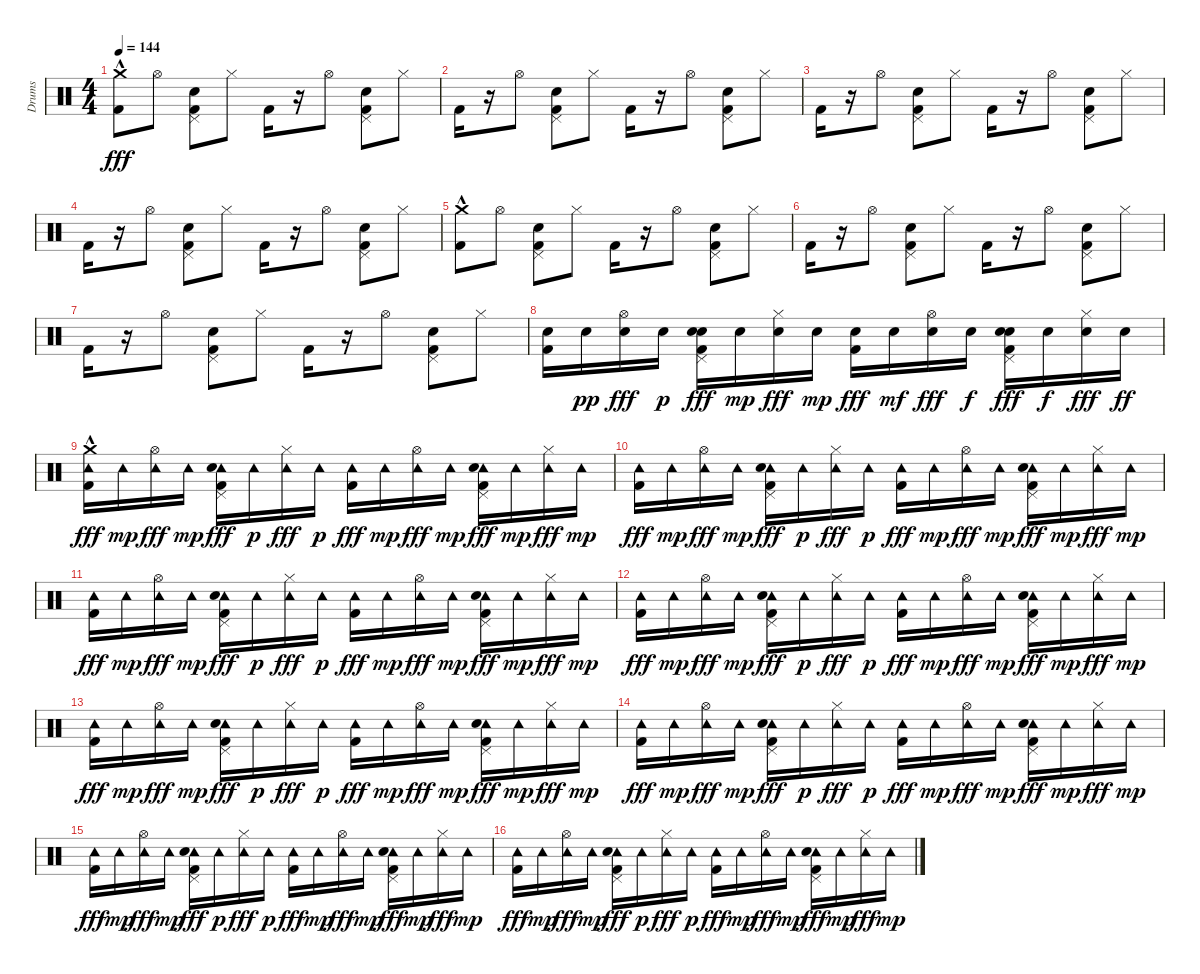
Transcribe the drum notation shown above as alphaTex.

\track ("Drums" "Drums") {instrument percussion}
\staff {score}
\articulation defaults
\ts (4 4)
\tempo 144
\clef neutral
\ks c
("Crash medium (hit)"{hac} "Kick (hit) 2").8{dy fff} "Hi-Hat (open)".8 ("Pedal Hi-Hat (hit)" "Kick (hit) 2" "Hand Clap (hit)").8 "Hi-Hat (closed)".8 "Kick (hit) 2".16 r.16 "Hi-Hat (open)".8 ("Pedal Hi-Hat (hit)" "Kick (hit) 2" "Hand Clap (hit)").8 "Hi-Hat (closed)".8 |
"Kick (hit) 2".16 r.16 "Hi-Hat (open)".8 ("Pedal Hi-Hat (hit)" "Kick (hit) 2" "Hand Clap (hit)").8 "Hi-Hat (closed)".8 "Kick (hit) 2".16 r.16 "Hi-Hat (open)".8 ("Pedal Hi-Hat (hit)" "Kick (hit) 2" "Hand Clap (hit)").8 "Hi-Hat (closed)".8 |
"Kick (hit) 2".16 r.16 "Hi-Hat (open)".8 ("Pedal Hi-Hat (hit)" "Kick (hit) 2" "Hand Clap (hit)").8 "Hi-Hat (closed)".8 "Kick (hit) 2".16 r.16 "Hi-Hat (open)".8 ("Pedal Hi-Hat (hit)" "Kick (hit) 2" "Hand Clap (hit)").8 "Hi-Hat (closed)".8 |
"Kick (hit) 2".16 r.16 "Hi-Hat (open)".8 ("Pedal Hi-Hat (hit)" "Kick (hit) 2" "Hand Clap (hit)").8 "Hi-Hat (closed)".8 "Kick (hit) 2".16 r.16 "Hi-Hat (open)".8 ("Pedal Hi-Hat (hit)" "Kick (hit) 2" "Hand Clap (hit)").8 "Hi-Hat (closed)".8 |
("Crash medium (hit)"{hac} "Kick (hit) 2").8 "Hi-Hat (open)".8 ("Pedal Hi-Hat (hit)" "Kick (hit) 2" "Hand Clap (hit)").8 "Hi-Hat (closed)".8 "Kick (hit) 2".16 r.16 "Hi-Hat (open)".8 ("Pedal Hi-Hat (hit)" "Kick (hit) 2" "Hand Clap (hit)").8 "Hi-Hat (closed)".8 |
"Kick (hit) 2".16 r.16 "Hi-Hat (open)".8 ("Pedal Hi-Hat (hit)" "Kick (hit) 2" "Hand Clap (hit)").8 "Hi-Hat (closed)".8 "Kick (hit) 2".16 r.16 "Hi-Hat (open)".8 ("Pedal Hi-Hat (hit)" "Kick (hit) 2" "Hand Clap (hit)").8 "Hi-Hat (closed)".8 |
"Kick (hit) 2".16 r.16 "Hi-Hat (open)".8 ("Pedal Hi-Hat (hit)" "Kick (hit) 2" "Hand Clap (hit)").8 "Hi-Hat (closed)".8 "Kick (hit) 2".16 r.16 "Hi-Hat (open)".8 ("Pedal Hi-Hat (hit)" "Kick (hit) 2" "Hand Clap (hit)").8 "Hi-Hat (closed)".8 |
("Electric Snare (hit)" "Kick (hit) 2").16 "Electric Snare (hit)".16{dy pp} ("Electric Snare (hit)" "Hi-Hat (open)").16{dy fff} "Electric Snare (hit)".16{dy p} ("Electric Snare (hit)" "Pedal Hi-Hat (hit)" "Kick (hit) 2" "Hand Clap (hit)").16{dy fff} "Electric Snare (hit)".16{dy mp} ("Electric Snare (hit)" "Hi-Hat (closed)").16{dy fff} "Electric Snare (hit)".16{dy mp} ("Electric Snare (hit)" "Kick (hit) 2").16{dy fff} "Electric Snare (hit)".16{dy mf} ("Electric Snare (hit)" "Hi-Hat (open)").16{dy fff} "Electric Snare (hit)".16{dy f} ("Electric Snare (hit)" "Pedal Hi-Hat (hit)" "Kick (hit) 2" "Hand Clap (hit)").16{dy fff} "Electric Snare (hit)".16{dy f} ("Electric Snare (hit)" "Hi-Hat (closed)").16{dy fff} "Electric Snare (hit)".16{dy ff} |
("Crash medium (hit)"{hac} "Tambourine (hit)" "Kick (hit) 2").16{dy fff} "Tambourine (hit)".16{dy mp} ("Tambourine (hit)" "Hi-Hat (open)").16{dy fff} "Tambourine (hit)".16{dy mp} ("Tambourine (hit)" "Pedal Hi-Hat (hit)" "Kick (hit) 2" "Hand Clap (hit)").16{dy fff} "Tambourine (hit)".16{dy p} ("Tambourine (hit)" "Hi-Hat (closed)").16{dy fff} "Tambourine (hit)".16{dy p} ("Tambourine (hit)" "Kick (hit) 2").16{dy fff} "Tambourine (hit)".16{dy mp} ("Tambourine (hit)" "Hi-Hat (open)").16{dy fff} "Tambourine (hit)".16{dy mp} ("Tambourine (hit)" "Pedal Hi-Hat (hit)" "Kick (hit) 2" "Hand Clap (hit)").16{dy fff} "Tambourine (hit)".16{dy mp} ("Tambourine (hit)" "Hi-Hat (closed)").16{dy fff} "Tambourine (hit)".16{dy mp} |
("Tambourine (hit)" "Kick (hit) 2").16{dy fff} "Tambourine (hit)".16{dy mp} ("Tambourine (hit)" "Hi-Hat (open)").16{dy fff} "Tambourine (hit)".16{dy mp} ("Tambourine (hit)" "Pedal Hi-Hat (hit)" "Kick (hit) 2" "Hand Clap (hit)").16{dy fff} "Tambourine (hit)".16{dy p} ("Tambourine (hit)" "Hi-Hat (closed)").16{dy fff} "Tambourine (hit)".16{dy p} ("Tambourine (hit)" "Kick (hit) 2").16{dy fff} "Tambourine (hit)".16{dy mp} ("Tambourine (hit)" "Hi-Hat (open)").16{dy fff} "Tambourine (hit)".16{dy mp} ("Tambourine (hit)" "Pedal Hi-Hat (hit)" "Kick (hit) 2" "Hand Clap (hit)").16{dy fff} "Tambourine (hit)".16{dy mp} ("Tambourine (hit)" "Hi-Hat (closed)").16{dy fff} "Tambourine (hit)".16{dy mp} |
("Tambourine (hit)" "Kick (hit) 2").16{dy fff} "Tambourine (hit)".16{dy mp} ("Tambourine (hit)" "Hi-Hat (open)").16{dy fff} "Tambourine (hit)".16{dy mp} ("Tambourine (hit)" "Pedal Hi-Hat (hit)" "Kick (hit) 2" "Hand Clap (hit)").16{dy fff} "Tambourine (hit)".16{dy p} ("Tambourine (hit)" "Hi-Hat (closed)").16{dy fff} "Tambourine (hit)".16{dy p} ("Tambourine (hit)" "Kick (hit) 2").16{dy fff} "Tambourine (hit)".16{dy mp} ("Tambourine (hit)" "Hi-Hat (open)").16{dy fff} "Tambourine (hit)".16{dy mp} ("Tambourine (hit)" "Pedal Hi-Hat (hit)" "Kick (hit) 2" "Hand Clap (hit)").16{dy fff} "Tambourine (hit)".16{dy mp} ("Tambourine (hit)" "Hi-Hat (closed)").16{dy fff} "Tambourine (hit)".16{dy mp} |
("Tambourine (hit)" "Kick (hit) 2").16{dy fff} "Tambourine (hit)".16{dy mp} ("Tambourine (hit)" "Hi-Hat (open)").16{dy fff} "Tambourine (hit)".16{dy mp} ("Tambourine (hit)" "Pedal Hi-Hat (hit)" "Kick (hit) 2" "Hand Clap (hit)").16{dy fff} "Tambourine (hit)".16{dy p} ("Tambourine (hit)" "Hi-Hat (closed)").16{dy fff} "Tambourine (hit)".16{dy p} ("Tambourine (hit)" "Kick (hit) 2").16{dy fff} "Tambourine (hit)".16{dy mp} ("Tambourine (hit)" "Hi-Hat (open)").16{dy fff} "Tambourine (hit)".16{dy mp} ("Tambourine (hit)" "Pedal Hi-Hat (hit)" "Kick (hit) 2" "Hand Clap (hit)").16{dy fff} "Tambourine (hit)".16{dy mp} ("Tambourine (hit)" "Hi-Hat (closed)").16{dy fff} "Tambourine (hit)".16{dy mp} |
("Tambourine (hit)" "Kick (hit) 2").16{dy fff} "Tambourine (hit)".16{dy mp} ("Tambourine (hit)" "Hi-Hat (open)").16{dy fff} "Tambourine (hit)".16{dy mp} ("Tambourine (hit)" "Pedal Hi-Hat (hit)" "Kick (hit) 2" "Hand Clap (hit)").16{dy fff} "Tambourine (hit)".16{dy p} ("Tambourine (hit)" "Hi-Hat (closed)").16{dy fff} "Tambourine (hit)".16{dy p} ("Tambourine (hit)" "Kick (hit) 2").16{dy fff} "Tambourine (hit)".16{dy mp} ("Tambourine (hit)" "Hi-Hat (open)").16{dy fff} "Tambourine (hit)".16{dy mp} ("Tambourine (hit)" "Pedal Hi-Hat (hit)" "Kick (hit) 2" "Hand Clap (hit)").16{dy fff} "Tambourine (hit)".16{dy mp} ("Tambourine (hit)" "Hi-Hat (closed)").16{dy fff} "Tambourine (hit)".16{dy mp} |
("Tambourine (hit)" "Kick (hit) 2").16{dy fff} "Tambourine (hit)".16{dy mp} ("Tambourine (hit)" "Hi-Hat (open)").16{dy fff} "Tambourine (hit)".16{dy mp} ("Tambourine (hit)" "Pedal Hi-Hat (hit)" "Kick (hit) 2" "Hand Clap (hit)").16{dy fff} "Tambourine (hit)".16{dy p} ("Tambourine (hit)" "Hi-Hat (closed)").16{dy fff} "Tambourine (hit)".16{dy p} ("Tambourine (hit)" "Kick (hit) 2").16{dy fff} "Tambourine (hit)".16{dy mp} ("Tambourine (hit)" "Hi-Hat (open)").16{dy fff} "Tambourine (hit)".16{dy mp} ("Tambourine (hit)" "Pedal Hi-Hat (hit)" "Kick (hit) 2" "Hand Clap (hit)").16{dy fff} "Tambourine (hit)".16{dy mp} ("Tambourine (hit)" "Hi-Hat (closed)").16{dy fff} "Tambourine (hit)".16{dy mp} |
("Tambourine (hit)" "Kick (hit) 2").16{dy fff} "Tambourine (hit)".16{dy mp} ("Tambourine (hit)" "Hi-Hat (open)").16{dy fff} "Tambourine (hit)".16{dy mp} ("Tambourine (hit)" "Pedal Hi-Hat (hit)" "Kick (hit) 2" "Hand Clap (hit)").16{dy fff} "Tambourine (hit)".16{dy p} ("Tambourine (hit)" "Hi-Hat (closed)").16{dy fff} "Tambourine (hit)".16{dy p} ("Tambourine (hit)" "Kick (hit) 2").16{dy fff} "Tambourine (hit)".16{dy mp} ("Tambourine (hit)" "Hi-Hat (open)").16{dy fff} "Tambourine (hit)".16{dy mp} ("Tambourine (hit)" "Pedal Hi-Hat (hit)" "Kick (hit) 2" "Hand Clap (hit)").16{dy fff} "Tambourine (hit)".16{dy mp} ("Tambourine (hit)" "Hi-Hat (closed)").16{dy fff} "Tambourine (hit)".16{dy mp} |
("Tambourine (hit)" "Kick (hit) 2").16{dy fff} "Tambourine (hit)".16{dy mp} ("Tambourine (hit)" "Hi-Hat (open)").16{dy fff} "Tambourine (hit)".16{dy mp} ("Tambourine (hit)" "Pedal Hi-Hat (hit)" "Kick (hit) 2" "Hand Clap (hit)").16{dy fff} "Tambourine (hit)".16{dy p} ("Tambourine (hit)" "Hi-Hat (closed)").16{dy fff} "Tambourine (hit)".16{dy p} ("Tambourine (hit)" "Kick (hit) 2").16{dy fff} "Tambourine (hit)".16{dy mp} ("Tambourine (hit)" "Hi-Hat (open)").16{dy fff} "Tambourine (hit)".16{dy mp} ("Tambourine (hit)" "Pedal Hi-Hat (hit)" "Kick (hit) 2" "Hand Clap (hit)").16{dy fff} "Tambourine (hit)".16{dy mp} ("Tambourine (hit)" "Hi-Hat (closed)").16{dy fff} "Tambourine (hit)".16{dy mp}
